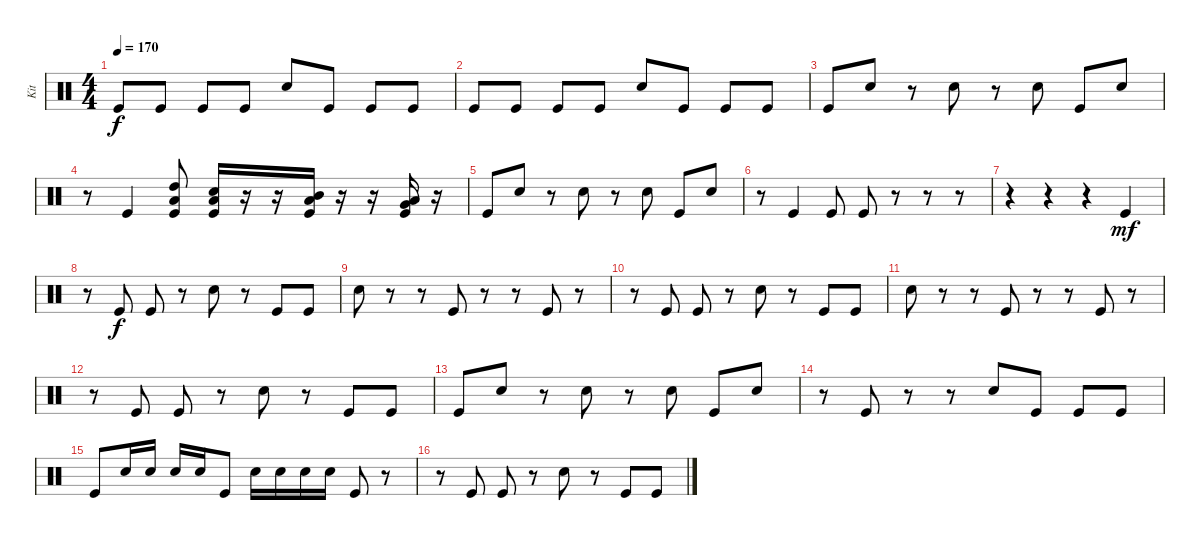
\track ("Kit" "Kit") {instrument percussion}
\staff {score}
\articulation defaults
\ts (4 4)
\tempo 170
\clef neutral
\ks c "Kick (hit)".8{dy f} "Kick (hit)".8 "Kick (hit)".8 "Kick (hit)".8 "Snare (hit) 2".8 "Kick (hit)".8 "Kick (hit)".8 "Kick (hit)".8
|
"Kick (hit)".8 "Kick (hit)".8 "Kick (hit)".8 "Kick (hit)".8 "Snare (hit) 2".8 "Kick (hit)".8 "Kick (hit)".8 "Kick (hit)".8 |
"Kick (hit)".8 "Snare (hit) 2".8 r.8 "Snare (hit) 2".8 r.8 "Snare (hit) 2".8 "Kick (hit)".8 "Snare (hit) 2".8 |
r.8 "Kick (hit)".4 ("Kick (hit)" "High Tom (hit)" "Low Floor Tom (hit)").8 ("Kick (hit)" "Low Floor Tom (hit)" "Snare (hit) 2").16 r.16 r.16 ("Kick (hit)" "Low Floor Tom (hit)" "Mid Tom (hit)").16 r.16 r.16 ("Kick (hit)" "Low Floor Tom (hit)" "Very Low Tom (hit)").16 r.16 |
"Kick (hit)".8 "Snare (hit) 2".8 r.8 "Snare (hit) 2".8 r.8 "Snare (hit) 2".8 "Kick (hit)".8 "Snare (hit) 2".8 |
r.8 "Kick (hit)".4 "Kick (hit)".8 "Kick (hit)".8 r.8 r.8 r.8 |
r.4 r.4 r.4 "Kick (hit)".4{dy mf} |
r.8 "Kick (hit)".8{dy f} "Kick (hit)".8 r.8 "Snare (hit) 2".8 r.8 "Kick (hit)".8 "Kick (hit)".8 |
"Snare (hit) 2".8 r.8 r.8 "Kick (hit)".8 r.8 r.8 "Kick (hit)".8 r.8 |
r.8 "Kick (hit)".8 "Kick (hit)".8 r.8 "Snare (hit) 2".8 r.8 "Kick (hit)".8 "Kick (hit)".8 |
"Snare (hit) 2".8 r.8 r.8 "Kick (hit)".8 r.8 r.8 "Kick (hit)".8 r.8 |
r.8 "Kick (hit)".8 "Kick (hit)".8 r.8 "Snare (hit) 2".8 r.8 "Kick (hit)".8 "Kick (hit)".8 |
"Kick (hit)".8 "Snare (hit) 2".8 r.8 "Snare (hit) 2".8 r.8 "Snare (hit) 2".8 "Kick (hit)".8 "Snare (hit) 2".8 |
r.8 "Kick (hit)".8 r.8 r.8 "Snare (hit) 2".8 "Kick (hit)".8 "Kick (hit)".8 "Kick (hit)".8 |
"Kick (hit)".8 "Snare (hit) 2".16 "Snare (hit) 2".16 "Snare (hit) 2".16 "Snare (hit) 2".16 "Kick (hit)".8 "Snare (hit) 2".16 "Snare (hit) 2".16 "Snare (hit) 2".16 "Snare (hit) 2".16 "Kick (hit)".8 r.8 |
r.8 "Kick (hit)".8 "Kick (hit)".8 r.8 "Snare (hit) 2".8 r.8 "Kick (hit)".8 "Kick (hit)".8
